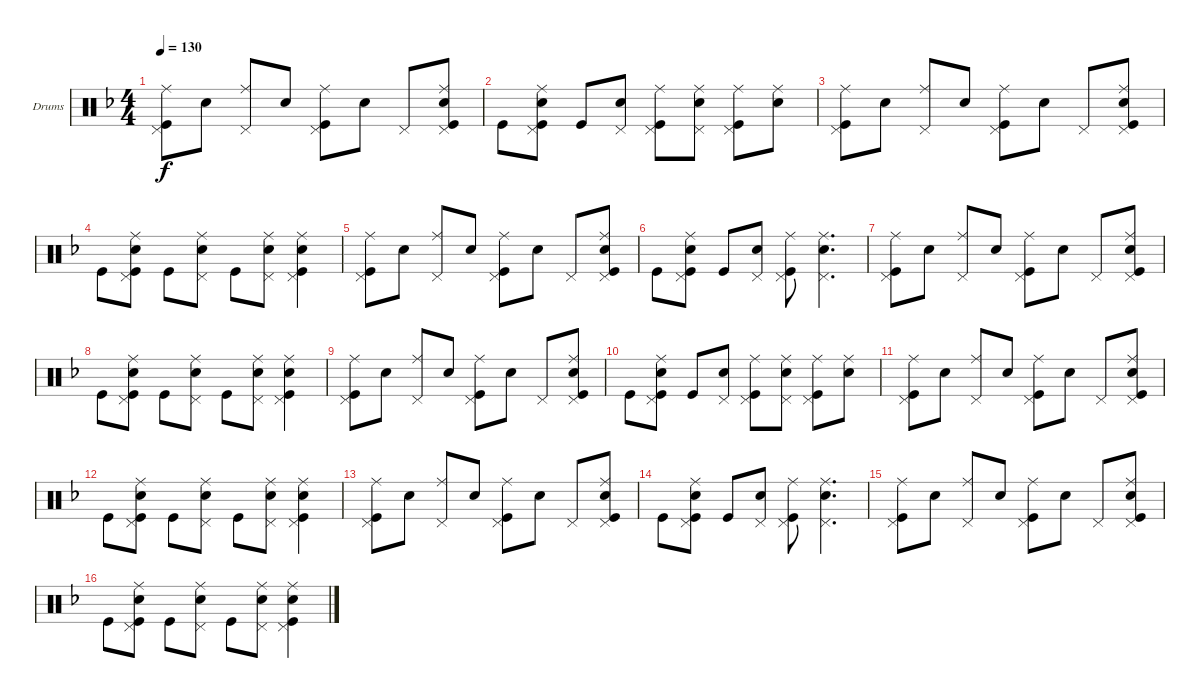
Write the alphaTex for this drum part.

\defaultSystemsLayout 4
\bracketExtendMode groupsimilarinstruments
\firstSystemTrackNameOrientation horizontal
\otherSystemsTrackNameOrientation horizontal
\track ("Drumkit" "Drums") {instrument percussion}
\staff {score}
\articulation defaults
\ts (4 4)
\tempo 130
\clef neutral
\ks f
("Ride (middle)" "Pedal Hi-Hat (hit)" "Kick (hit)").8{dy f} "Snare (hit) 2".8 ("Ride (middle)" "Pedal Hi-Hat (hit)").8 "Snare (hit) 2".8 ("Pedal Hi-Hat (hit)" "Kick (hit)" "Ride (middle)").8 "Snare (hit) 2".8 "Pedal Hi-Hat (hit)".8 ("Pedal Hi-Hat (hit)" "Snare (hit) 2" "Kick (hit)" "Ride (middle)").8 |
"Kick (hit)".8 ("Ride (middle)" "Pedal Hi-Hat (hit)" "Snare (hit) 2" "Kick (hit)").8 "Kick (hit)".8 ("Pedal Hi-Hat (hit)" "Snare (hit) 2").8 ("Kick (hit)" "Pedal Hi-Hat (hit)" "Ride (middle)").8 ("Pedal Hi-Hat (hit)" "Snare (hit) 2" "Ride (middle)").8 ("Ride (middle)" "Kick (hit)" "Pedal Hi-Hat (hit)").8 ("Ride (middle)" "Snare (hit) 2").8 |
("Ride (middle)" "Pedal Hi-Hat (hit)" "Kick (hit)").8 "Snare (hit) 2".8 ("Ride (middle)" "Pedal Hi-Hat (hit)").8 "Snare (hit) 2".8 ("Pedal Hi-Hat (hit)" "Kick (hit)" "Ride (middle)").8 "Snare (hit) 2".8 "Pedal Hi-Hat (hit)".8 ("Pedal Hi-Hat (hit)" "Snare (hit) 2" "Kick (hit)" "Ride (middle)").8 |
"Kick (hit)".8 ("Ride (middle)" "Pedal Hi-Hat (hit)" "Snare (hit) 2" "Kick (hit)").8 "Kick (hit)".8 ("Ride (middle)" "Pedal Hi-Hat (hit)" "Snare (hit) 2").8 "Kick (hit)".8 ("Pedal Hi-Hat (hit)" "Snare (hit) 2" "Ride (middle)").8 ("Ride (middle)" "Snare (hit) 2" "Kick (hit)" "Pedal Hi-Hat (hit)").4 |
("Ride (middle)" "Pedal Hi-Hat (hit)" "Kick (hit)").8 "Snare (hit) 2".8 ("Ride (middle)" "Pedal Hi-Hat (hit)").8 "Snare (hit) 2".8 ("Pedal Hi-Hat (hit)" "Kick (hit)" "Ride (middle)").8 "Snare (hit) 2".8 "Pedal Hi-Hat (hit)".8 ("Pedal Hi-Hat (hit)" "Snare (hit) 2" "Kick (hit)" "Ride (middle)").8 |
"Kick (hit)".8 ("Ride (middle)" "Pedal Hi-Hat (hit)" "Snare (hit) 2" "Kick (hit)").8 "Kick (hit)".8 ("Pedal Hi-Hat (hit)" "Snare (hit) 2").8 ("Kick (hit)" "Pedal Hi-Hat (hit)" "Ride (middle)").8 ("Pedal Hi-Hat (hit)" "Snare (hit) 2" "Ride (middle)").4{d} |
("Ride (middle)" "Pedal Hi-Hat (hit)" "Kick (hit)").8 "Snare (hit) 2".8 ("Ride (middle)" "Pedal Hi-Hat (hit)").8 "Snare (hit) 2".8 ("Pedal Hi-Hat (hit)" "Kick (hit)" "Ride (middle)").8 "Snare (hit) 2".8 "Pedal Hi-Hat (hit)".8 ("Pedal Hi-Hat (hit)" "Snare (hit) 2" "Kick (hit)" "Ride (middle)").8 |
"Kick (hit)".8 ("Ride (middle)" "Pedal Hi-Hat (hit)" "Snare (hit) 2" "Kick (hit)").8 "Kick (hit)".8 ("Ride (middle)" "Pedal Hi-Hat (hit)" "Snare (hit) 2").8 "Kick (hit)".8 ("Pedal Hi-Hat (hit)" "Snare (hit) 2" "Ride (middle)").8 ("Ride (middle)" "Snare (hit) 2" "Kick (hit)" "Pedal Hi-Hat (hit)").4 |
("Ride (middle)" "Pedal Hi-Hat (hit)" "Kick (hit)").8 "Snare (hit) 2".8 ("Ride (middle)" "Pedal Hi-Hat (hit)").8 "Snare (hit) 2".8 ("Pedal Hi-Hat (hit)" "Kick (hit)" "Ride (middle)").8 "Snare (hit) 2".8 "Pedal Hi-Hat (hit)".8 ("Pedal Hi-Hat (hit)" "Snare (hit) 2" "Kick (hit)" "Ride (middle)").8 |
"Kick (hit)".8 ("Ride (middle)" "Pedal Hi-Hat (hit)" "Snare (hit) 2" "Kick (hit)").8 "Kick (hit)".8 ("Pedal Hi-Hat (hit)" "Snare (hit) 2").8 ("Kick (hit)" "Pedal Hi-Hat (hit)" "Ride (middle)").8 ("Pedal Hi-Hat (hit)" "Snare (hit) 2" "Ride (middle)").8 ("Ride (middle)" "Kick (hit)" "Pedal Hi-Hat (hit)").8 ("Ride (middle)" "Snare (hit) 2").8 |
("Ride (middle)" "Pedal Hi-Hat (hit)" "Kick (hit)").8 "Snare (hit) 2".8 ("Ride (middle)" "Pedal Hi-Hat (hit)").8 "Snare (hit) 2".8 ("Pedal Hi-Hat (hit)" "Kick (hit)" "Ride (middle)").8 "Snare (hit) 2".8 "Pedal Hi-Hat (hit)".8 ("Pedal Hi-Hat (hit)" "Snare (hit) 2" "Kick (hit)" "Ride (middle)").8 |
"Kick (hit)".8 ("Ride (middle)" "Pedal Hi-Hat (hit)" "Snare (hit) 2" "Kick (hit)").8 "Kick (hit)".8 ("Ride (middle)" "Pedal Hi-Hat (hit)" "Snare (hit) 2").8 "Kick (hit)".8 ("Pedal Hi-Hat (hit)" "Snare (hit) 2" "Ride (middle)").8 ("Ride (middle)" "Snare (hit) 2" "Kick (hit)" "Pedal Hi-Hat (hit)").4 |
("Ride (middle)" "Pedal Hi-Hat (hit)" "Kick (hit)").8 "Snare (hit) 2".8 ("Ride (middle)" "Pedal Hi-Hat (hit)").8 "Snare (hit) 2".8 ("Pedal Hi-Hat (hit)" "Kick (hit)" "Ride (middle)").8 "Snare (hit) 2".8 "Pedal Hi-Hat (hit)".8 ("Pedal Hi-Hat (hit)" "Snare (hit) 2" "Kick (hit)" "Ride (middle)").8 |
"Kick (hit)".8 ("Ride (middle)" "Pedal Hi-Hat (hit)" "Snare (hit) 2" "Kick (hit)").8 "Kick (hit)".8 ("Pedal Hi-Hat (hit)" "Snare (hit) 2").8 ("Kick (hit)" "Pedal Hi-Hat (hit)" "Ride (middle)").8 ("Pedal Hi-Hat (hit)" "Snare (hit) 2" "Ride (middle)").4{d} |
("Ride (middle)" "Pedal Hi-Hat (hit)" "Kick (hit)").8 "Snare (hit) 2".8 ("Ride (middle)" "Pedal Hi-Hat (hit)").8 "Snare (hit) 2".8 ("Pedal Hi-Hat (hit)" "Kick (hit)" "Ride (middle)").8 "Snare (hit) 2".8 "Pedal Hi-Hat (hit)".8 ("Pedal Hi-Hat (hit)" "Snare (hit) 2" "Kick (hit)" "Ride (middle)").8 |
"Kick (hit)".8 ("Ride (middle)" "Pedal Hi-Hat (hit)" "Snare (hit) 2" "Kick (hit)").8 "Kick (hit)".8 ("Ride (middle)" "Pedal Hi-Hat (hit)" "Snare (hit) 2").8 "Kick (hit)".8 ("Pedal Hi-Hat (hit)" "Snare (hit) 2" "Ride (middle)").8 ("Ride (middle)" "Snare (hit) 2" "Kick (hit)" "Pedal Hi-Hat (hit)").4
